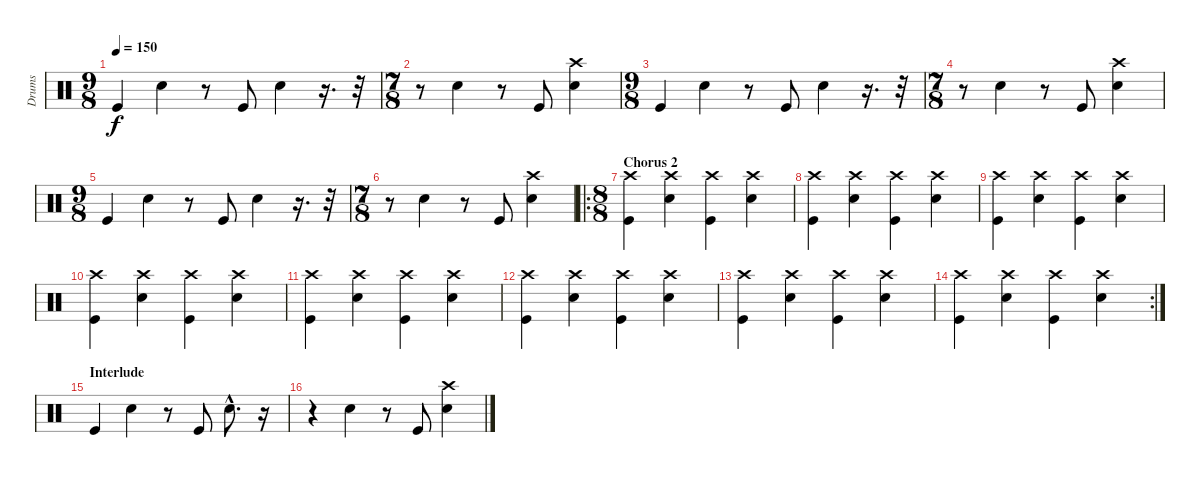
\track ("Drums" "Drums") {instrument percussion}
\staff {score}
\articulation defaults
\ts (9 8)
\tempo 150
\clef neutral
\ks c "Kick (hit)".4{dy f} "Snare (hit) 2".4
r.8 "Kick (hit)".8 "Snare (hit) 2".4 r.16{d} r.32 |
\ts (7 8)
r.8 "Snare (hit) 2".4 r.8 "Kick (hit)".8 ("Crash high (hit)" "Snare (hit) 2").4 |
\ts (9 8)
"Kick (hit)".4 "Snare (hit) 2".4 r.8 "Kick (hit)".8 "Snare (hit) 2".4 r.16{d} r.32 |
\ts (7 8)
r.8 "Snare (hit) 2".4 r.8 "Kick (hit)".8 ("Crash high (hit)" "Snare (hit) 2").4 |
\ts (9 8)
"Kick (hit)".4 "Snare (hit) 2".4 r.8 "Kick (hit)".8 "Snare (hit) 2".4 r.16{d} r.32 |
\ts (7 8)
r.8 "Snare (hit) 2".4 r.8 "Kick (hit)".8 ("Crash high (hit)" "Snare (hit) 2").4 |
\ro
\ts (8 8)
\section ("" "Chorus 2")
("Crash high (hit)" "Kick (hit)").4 ("Crash high (hit)" "Snare (hit) 2").4 ("Crash high (hit)" "Kick (hit)").4 ("Crash high (hit)" "Snare (hit) 2").4 |
("Crash high (hit)" "Kick (hit)").4 ("Crash high (hit)" "Snare (hit) 2").4 ("Crash high (hit)" "Kick (hit)").4 ("Crash high (hit)" "Snare (hit) 2").4 |
("Crash high (hit)" "Kick (hit)").4 ("Crash high (hit)" "Snare (hit) 2").4 ("Crash high (hit)" "Kick (hit)").4 ("Crash high (hit)" "Snare (hit) 2").4 |
("Crash high (hit)" "Kick (hit)").4 ("Crash high (hit)" "Snare (hit) 2").4 ("Crash high (hit)" "Kick (hit)").4 ("Crash high (hit)" "Snare (hit) 2").4 |
("Crash high (hit)" "Kick (hit)").4 ("Crash high (hit)" "Snare (hit) 2").4 ("Crash high (hit)" "Kick (hit)").4 ("Crash high (hit)" "Snare (hit) 2").4 |
("Crash high (hit)" "Kick (hit)").4 ("Crash high (hit)" "Snare (hit) 2").4 ("Crash high (hit)" "Kick (hit)").4 ("Crash high (hit)" "Snare (hit) 2").4 |
("Crash high (hit)" "Kick (hit)").4 ("Crash high (hit)" "Snare (hit) 2").4 ("Crash high (hit)" "Kick (hit)").4 ("Crash high (hit)" "Snare (hit) 2").4 |
\rc 2
("Crash high (hit)" "Kick (hit)").4 ("Crash high (hit)" "Snare (hit) 2").4 ("Crash high (hit)" "Kick (hit)").4 ("Crash high (hit)" "Snare (hit) 2").4 |
\section ("" "Interlude")
"Kick (hit)".4 "Snare (hit) 2".4 r.8 "Kick (hit)".8 "Snare (hit) 2"{hac}.8{d} r.16 |
r.4 "Snare (hit) 2".4 r.8 "Kick (hit)".8 ("Crash high (hit)" "Snare (hit) 2").4
